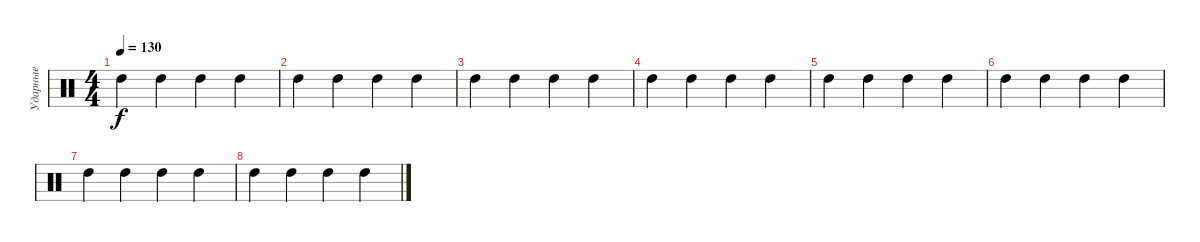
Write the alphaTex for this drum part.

\track ("Ударные" "Ударные") {instrument percussion}
\staff {score}
\articulation defaults
\ts (4 4)
\tempo 130
\clef neutral
\ks c "High Tom (hit)".4{dy f} "High Tom (hit)".4 "High Tom (hit)".4 "High Tom (hit)".4
|
"High Tom (hit)".4 "High Tom (hit)".4 "High Tom (hit)".4 "High Tom (hit)".4 |
"High Tom (hit)".4 "High Tom (hit)".4 "High Tom (hit)".4 "High Tom (hit)".4 |
"High Tom (hit)".4 "High Tom (hit)".4 "High Tom (hit)".4 "High Tom (hit)".4 |
"High Tom (hit)".4 "High Tom (hit)".4 "High Tom (hit)".4 "High Tom (hit)".4 |
"High Tom (hit)".4 "High Tom (hit)".4 "High Tom (hit)".4 "High Tom (hit)".4 |
"High Tom (hit)".4 "High Tom (hit)".4 "High Tom (hit)".4 "High Tom (hit)".4 |
"High Tom (hit)".4 "High Tom (hit)".4 "High Tom (hit)".4 "High Tom (hit)".4
